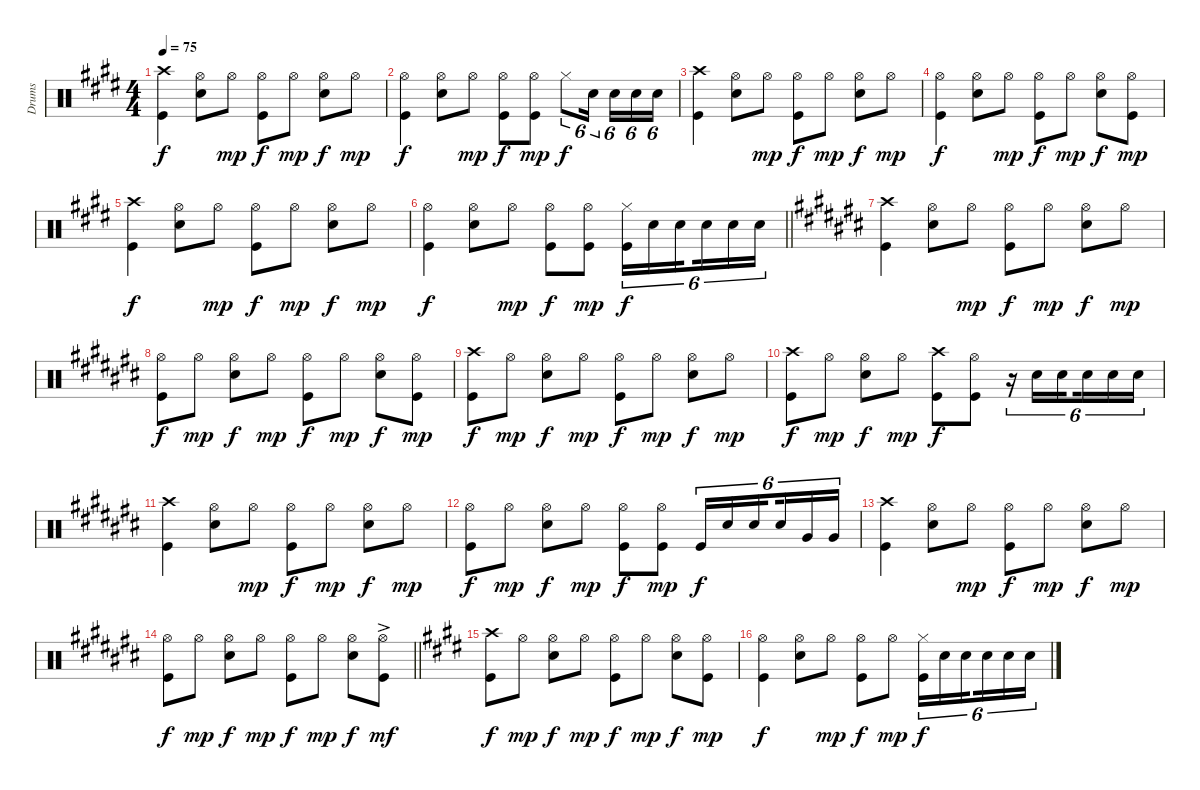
\track ("Drums" "Drums") {instrument percussion}
\staff {score}
\articulation defaults
\ts (4 4)
\tempo 75
\clef neutral
\ks e
("Crash high (hit)" "Kick (hit)").4{dy f} ("Hi-Hat (open)" "Snare (hit) 2").8 "Hi-Hat (open)".8{dy mp} ("Hi-Hat (open)" "Kick (hit)").8{dy f} "Hi-Hat (open)".8{dy mp} ("Hi-Hat (open)" "Snare (hit) 2").8{dy f} "Hi-Hat (open)".8{dy mp} |
("Hi-Hat (open)" "Kick (hit)").4{dy f} ("Hi-Hat (open)" "Snare (hit) 2").8 "Hi-Hat (open)".8{dy mp} ("Hi-Hat (open)" "Kick (hit)").8{dy f} ("Hi-Hat (open)" "Kick (hit)").8{dy mp} "Hi-Hat (closed)".8{tu (6 4) dy f} "Snare (hit) 2".16{tu (6 4) beam splitsecondary} "Snare (hit) 2".16{tu (6 4)} "Snare (hit) 2".16{tu (6 4)} "Snare (hit) 2".16{tu (6 4)} |
("Crash high (hit)" "Kick (hit)").4 ("Hi-Hat (open)" "Snare (hit) 2").8 "Hi-Hat (open)".8{dy mp} ("Hi-Hat (open)" "Kick (hit)").8{dy f} "Hi-Hat (open)".8{dy mp} ("Hi-Hat (open)" "Snare (hit) 2").8{dy f} "Hi-Hat (open)".8{dy mp} |
("Hi-Hat (open)" "Kick (hit)").4{dy f} ("Hi-Hat (open)" "Snare (hit) 2").8 "Hi-Hat (open)".8{dy mp} ("Hi-Hat (open)" "Kick (hit)").8{dy f} "Hi-Hat (open)".8{dy mp} ("Hi-Hat (open)" "Snare (hit) 2").8{dy f} ("Hi-Hat (open)" "Kick (hit)").8{dy mp} |
("Crash high (hit)" "Kick (hit)").4{dy f} ("Hi-Hat (open)" "Snare (hit) 2").8 "Hi-Hat (open)".8{dy mp} ("Hi-Hat (open)" "Kick (hit)").8{dy f} "Hi-Hat (open)".8{dy mp} ("Hi-Hat (open)" "Snare (hit) 2").8{dy f} "Hi-Hat (open)".8{dy mp} |
\barLineRight lightlight
("Hi-Hat (open)" "Kick (hit)").4{dy f} ("Hi-Hat (open)" "Snare (hit) 2").8 "Hi-Hat (open)".8{dy mp} ("Hi-Hat (open)" "Kick (hit)").8{dy f} ("Hi-Hat (open)" "Kick (hit)").8{dy mp} ("Hi-Hat (closed)" "Kick (hit)").16{tu (6 4) dy f} "Snare (hit) 2".16{tu (6 4)} "Snare (hit) 2".16{tu (6 4) beam splitsecondary} "Snare (hit) 2".16{tu (6 4)} "Snare (hit) 2".16{tu (6 4)} "Snare (hit) 2".16{tu (6 4)} |
\ks c#
("Crash high (hit)" "Kick (hit)").4 ("Hi-Hat (open)" "Snare (hit) 2").8 "Hi-Hat (open)".8{dy mp} ("Hi-Hat (open)" "Kick (hit)").8{dy f} "Hi-Hat (open)".8{dy mp} ("Hi-Hat (open)" "Snare (hit) 2").8{dy f} "Hi-Hat (open)".8{dy mp} |
("Hi-Hat (open)" "Kick (hit)").8{dy f} "Hi-Hat (open)".8{dy mp} ("Hi-Hat (open)" "Snare (hit) 2").8{dy f} "Hi-Hat (open)".8{dy mp} ("Hi-Hat (open)" "Kick (hit)").8{dy f} "Hi-Hat (open)".8{dy mp} ("Hi-Hat (open)" "Snare (hit) 2").8{dy f} ("Hi-Hat (open)" "Kick (hit)").8{dy mp} |
("Crash high (hit)" "Kick (hit)").8{dy f} "Hi-Hat (open)".8{dy mp} ("Hi-Hat (open)" "Snare (hit) 2").8{dy f} "Hi-Hat (open)".8{dy mp} ("Hi-Hat (open)" "Kick (hit)").8{dy f} "Hi-Hat (open)".8{dy mp} ("Hi-Hat (open)" "Snare (hit) 2").8{dy f} "Hi-Hat (open)".8{dy mp} |
("Crash high (hit)" "Kick (hit)").8{dy f} "Hi-Hat (open)".8{dy mp} ("Hi-Hat (open)" "Snare (hit) 2").8{dy f} "Hi-Hat (open)".8{dy mp} ("Crash high (hit)" "Kick (hit)").8{dy f} ("Hi-Hat (open)" "Kick (hit)").8 r.16{tu (6 4)} "Snare (hit) 2".16{tu (6 4)} "Snare (hit) 2".16{tu (6 4) beam splitsecondary} "Snare (hit) 2".16{tu (6 4)} "Snare (hit) 2".16{tu (6 4)} "Snare (hit) 2".16{tu (6 4)} |
("Crash high (hit)" "Kick (hit)").4 ("Hi-Hat (open)" "Snare (hit) 2").8 "Hi-Hat (open)".8{dy mp} ("Hi-Hat (open)" "Kick (hit)").8{dy f} "Hi-Hat (open)".8{dy mp} ("Hi-Hat (open)" "Snare (hit) 2").8{dy f} "Hi-Hat (open)".8{dy mp} |
("Hi-Hat (open)" "Kick (hit)").8{dy f} "Hi-Hat (open)".8{dy mp} ("Hi-Hat (open)" "Snare (hit) 2").8{dy f} "Hi-Hat (open)".8{dy mp} ("Hi-Hat (open)" "Kick (hit)").8{dy f} ("Hi-Hat (open)" "Kick (hit)").8{dy mp} "Kick (hit)".16{tu (6 4) dy f} "Snare (hit) 2".16{tu (6 4)} "Snare (hit) 2".16{tu (6 4) beam splitsecondary} "Snare (hit) 2".16{tu (6 4)} "Very Low Tom (hit)".16{tu (6 4)} "Very Low Tom (hit)".16{tu (6 4)} |
("Crash high (hit)" "Kick (hit)").4 ("Hi-Hat (open)" "Snare (hit) 2").8 "Hi-Hat (open)".8{dy mp} ("Hi-Hat (open)" "Kick (hit)").8{dy f} "Hi-Hat (open)".8{dy mp} ("Hi-Hat (open)" "Snare (hit) 2").8{dy f} "Hi-Hat (open)".8{dy mp} |
\barLineRight lightlight
("Hi-Hat (open)" "Kick (hit)").8{dy f} "Hi-Hat (open)".8{dy mp} ("Hi-Hat (open)" "Snare (hit) 2").8{dy f} "Hi-Hat (open)".8{dy mp} ("Hi-Hat (open)" "Kick (hit)").8{dy f} "Hi-Hat (open)".8{dy mp} ("Hi-Hat (open)" "Snare (hit) 2").8{dy f} ("Hi-Hat (open)"{ac} "Kick (hit)").8{dy mf} |
\ks e
("Crash high (hit)" "Kick (hit)").8{dy f} "Hi-Hat (open)".8{dy mp} ("Hi-Hat (open)" "Snare (hit) 2").8{dy f} "Hi-Hat (open)".8{dy mp} ("Hi-Hat (open)" "Kick (hit)").8{dy f} "Hi-Hat (open)".8{dy mp} ("Hi-Hat (open)" "Snare (hit) 2").8{dy f} ("Hi-Hat (open)" "Kick (hit)").8{dy mp} |
("Hi-Hat (open)" "Kick (hit)").4{dy f} ("Hi-Hat (open)" "Snare (hit) 2").8 "Hi-Hat (open)".8{dy mp} ("Hi-Hat (open)" "Kick (hit)").8{dy f} "Hi-Hat (open)".8{dy mp} ("Hi-Hat (closed)" "Kick (hit)").16{tu (6 4) dy f} "Snare (hit) 2".16{tu (6 4)} "Snare (hit) 2".16{tu (6 4) beam splitsecondary} "Snare (hit) 2".16{tu (6 4)} "Snare (hit) 2".16{tu (6 4)} "Snare (hit) 2".16{tu (6 4)}
